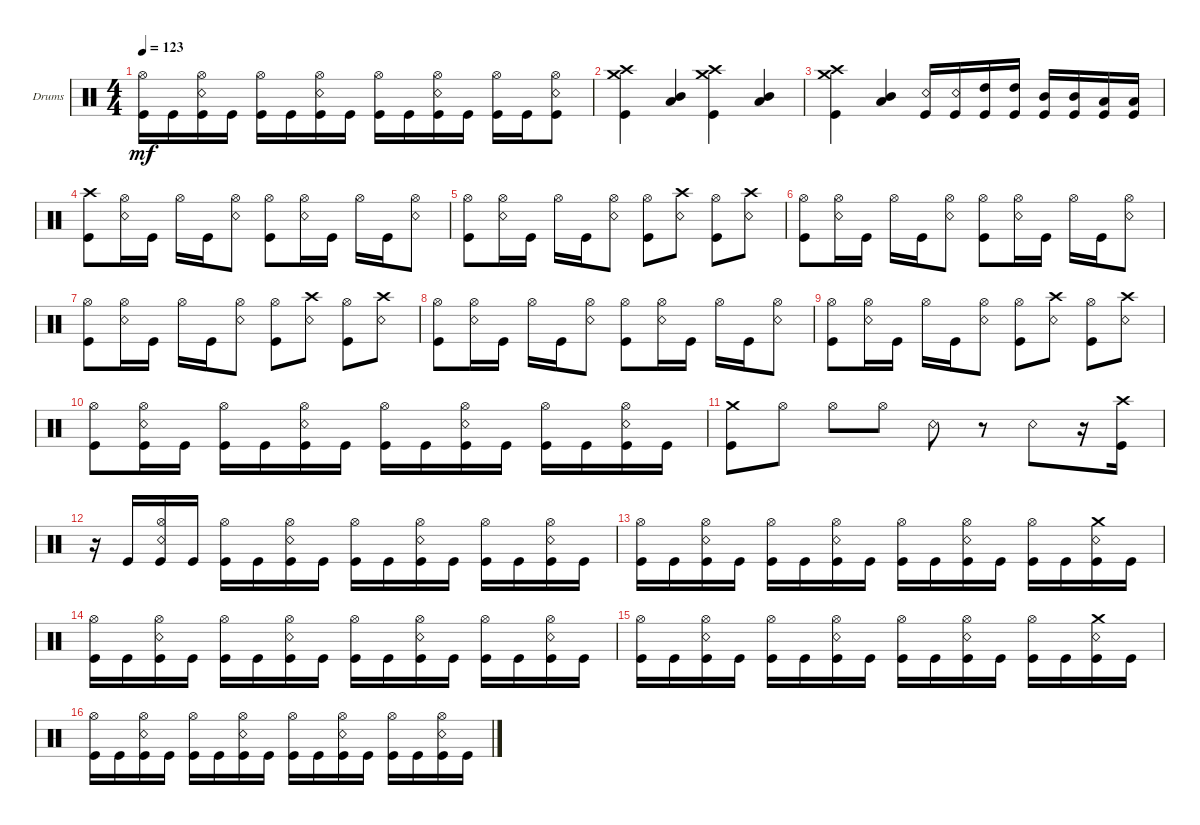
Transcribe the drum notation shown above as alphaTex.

\defaultSystemsLayout 4
\bracketExtendMode groupsimilarinstruments
\firstSystemTrackNameOrientation horizontal
\otherSystemsTrackNameOrientation horizontal
\track ("Drums" "Drums") {instrument percussion}
\staff {score}
\articulation defaults
\ts (4 4)
\tempo 123
\clef neutral
\scale
0.333333
\ks c
("Kick (hit)" "Hi-Hat (open)").16{dy mf} "Kick (hit)".16 ("Kick (hit)" "Hi-Hat (open)" "Snare (rim shot)").16 "Kick (hit)".16 ("Kick (hit)" "Hi-Hat (open)").16 "Kick (hit)".16 ("Kick (hit)" "Hi-Hat (open)" "Snare (rim shot)").16 "Kick (hit)".16 ("Kick (hit)" "Hi-Hat (open)").16 "Kick (hit)".16 ("Kick (hit)" "Hi-Hat (open)" "Snare (rim shot)").16 "Kick (hit)".16 ("Kick (hit)" "Hi-Hat (open)").16 "Kick (hit)".16 ("Kick (hit)" "Hi-Hat (open)" "Snare (rim shot)").8 |
\scale
0.333333 ("Kick (hit)" "Crash medium (hit)" "Crash high (hit)").4 ("Low Tom (hit)" "Mid Tom (hit)").4 ("Kick (hit)" "Crash high (hit)" "Crash medium (hit)").4 ("Mid Tom (hit)" "Low Tom (hit)").4 |
\scale
0.333333 ("Kick (hit)" "Crash medium (hit)" "Crash high (hit)").4 ("Low Tom (hit)" "Mid Tom (hit)").4 ("Kick (hit)" "Snare (rim shot)").16 ("Kick (hit)" "Snare (rim shot)").16 ("Kick (hit)" "High Tom (hit)").16 ("Kick (hit)" "High Tom (hit)").16 ("Kick (hit)" "Mid Tom (hit)").16 ("Kick (hit)" "Mid Tom (hit)").16 ("Kick (hit)" "Low Tom (hit)").16 ("Kick (hit)" "Low Tom (hit)").16 |
\scale
0.333333 ("Kick (hit)" "Crash high (hit)").8 ("Snare (rim shot)" "Hi-Hat (open)").16 "Kick (hit)".16 "Hi-Hat (open)".16 "Kick (hit)".16 ("Snare (rim shot)" "Hi-Hat (open)").8 ("Kick (hit)" "Hi-Hat (open)").8 ("Snare (rim shot)" "Hi-Hat (open)").16 "Kick (hit)".16 "Hi-Hat (open)".16 "Kick (hit)".16 ("Snare (rim shot)" "Hi-Hat (open)").8 |
\scale
0.333333 ("Kick (hit)" "Hi-Hat (open)").8 ("Snare (rim shot)" "Hi-Hat (open)").16 "Kick (hit)".16 "Hi-Hat (open)".16 "Kick (hit)".16 ("Snare (rim shot)" "Hi-Hat (open)").8 ("Kick (hit)" "Hi-Hat (open)").8 ("Snare (rim shot)" "Crash high (hit)").8 ("Kick (hit)" "Hi-Hat (open)").8 ("Snare (rim shot)" "Crash high (hit)").8 |
\scale
0.333333 ("Kick (hit)" "Hi-Hat (open)").8 ("Snare (rim shot)" "Hi-Hat (open)").16 "Kick (hit)".16 "Hi-Hat (open)".16 "Kick (hit)".16 ("Snare (rim shot)" "Hi-Hat (open)").8 ("Kick (hit)" "Hi-Hat (open)").8 ("Snare (rim shot)" "Hi-Hat (open)").16 "Kick (hit)".16 "Hi-Hat (open)".16 "Kick (hit)".16 ("Snare (rim shot)" "Hi-Hat (open)").8 |
\scale
0.333333 ("Kick (hit)" "Hi-Hat (open)").8 ("Snare (rim shot)" "Hi-Hat (open)").16 "Kick (hit)".16 "Hi-Hat (open)".16 "Kick (hit)".16 ("Snare (rim shot)" "Hi-Hat (open)").8 ("Kick (hit)" "Hi-Hat (open)").8 ("Snare (rim shot)" "Crash high (hit)").8 ("Kick (hit)" "Hi-Hat (open)").8 ("Snare (rim shot)" "Crash high (hit)").8 |
\scale
0.333333 ("Kick (hit)" "Hi-Hat (open)").8 ("Snare (rim shot)" "Hi-Hat (open)").16 "Kick (hit)".16 "Hi-Hat (open)".16 "Kick (hit)".16 ("Snare (rim shot)" "Hi-Hat (open)").8 ("Kick (hit)" "Hi-Hat (open)").8 ("Snare (rim shot)" "Hi-Hat (open)").16 "Kick (hit)".16 "Hi-Hat (open)".16 "Kick (hit)".16 ("Snare (rim shot)" "Hi-Hat (open)").8 |
\scale
0.333333 ("Kick (hit)" "Hi-Hat (open)").8 ("Snare (rim shot)" "Hi-Hat (open)").16 "Kick (hit)".16 "Hi-Hat (open)".16 "Kick (hit)".16 ("Snare (rim shot)" "Hi-Hat (open)").8 ("Kick (hit)" "Hi-Hat (open)").8 ("Snare (rim shot)" "Crash high (hit)").8 ("Kick (hit)" "Hi-Hat (open)").8 ("Snare (rim shot)" "Crash high (hit)").8 |
\scale
0.333333 ("Kick (hit)" "Hi-Hat (open)").8 ("Kick (hit)" "Hi-Hat (open)" "Snare (rim shot)").16 "Kick (hit)".16 ("Kick (hit)" "Hi-Hat (open)").16 "Kick (hit)".16 ("Kick (hit)" "Hi-Hat (open)" "Snare (rim shot)").16 "Kick (hit)".16 ("Kick (hit)" "Hi-Hat (open)").16 "Kick (hit)".16 ("Kick (hit)" "Hi-Hat (open)" "Snare (rim shot)").16 "Kick (hit)".16 ("Kick (hit)" "Hi-Hat (open)").16 "Kick (hit)".16 ("Kick (hit)" "Hi-Hat (open)" "Snare (rim shot)").16 "Kick (hit)".16 |
\scale
0.333333 ("Kick (hit)" "Crash medium (hit)").8 "Hi-Hat (open)".8 "Hi-Hat (open)".8 "Hi-Hat (open)".8 "Snare (rim shot)".8 r.8 "Snare (rim shot)".8 r.16 ("Kick (hit)" "Crash high (hit)").16 |
\scale
0.333333 r.16 "Kick (hit)".16 ("Kick (hit)" "Hi-Hat (open)" "Snare (rim shot)").16 "Kick (hit)".16 ("Kick (hit)" "Hi-Hat (open)").16 "Kick (hit)".16 ("Kick (hit)" "Hi-Hat (open)" "Snare (rim shot)").16 "Kick (hit)".16 ("Kick (hit)" "Hi-Hat (open)").16 "Kick (hit)".16 ("Kick (hit)" "Hi-Hat (open)" "Snare (rim shot)").16 "Kick (hit)".16 ("Kick (hit)" "Hi-Hat (open)").16 "Kick (hit)".16 ("Kick (hit)" "Snare (rim shot)" "Hi-Hat (open)").16 "Kick (hit)".16 |
\scale
0.333333 ("Kick (hit)" "Hi-Hat (open)").16 "Kick (hit)".16 ("Kick (hit)" "Hi-Hat (open)" "Snare (rim shot)").16 "Kick (hit)".16 ("Kick (hit)" "Hi-Hat (open)").16 "Kick (hit)".16 ("Kick (hit)" "Hi-Hat (open)" "Snare (rim shot)").16 "Kick (hit)".16 ("Kick (hit)" "Hi-Hat (open)").16 "Kick (hit)".16 ("Kick (hit)" "Hi-Hat (open)" "Snare (rim shot)").16 "Kick (hit)".16 ("Kick (hit)" "Hi-Hat (open)").16 "Kick (hit)".16 ("Kick (hit)" "Snare (rim shot)" "Crash medium (hit)").16 "Kick (hit)".16 |
\scale
0.333333 ("Kick (hit)" "Hi-Hat (open)").16 "Kick (hit)".16 ("Kick (hit)" "Hi-Hat (open)" "Snare (rim shot)").16 "Kick (hit)".16 ("Kick (hit)" "Hi-Hat (open)").16 "Kick (hit)".16 ("Kick (hit)" "Hi-Hat (open)" "Snare (rim shot)").16 "Kick (hit)".16 ("Kick (hit)" "Hi-Hat (open)").16 "Kick (hit)".16 ("Kick (hit)" "Hi-Hat (open)" "Snare (rim shot)").16 "Kick (hit)".16 ("Kick (hit)" "Hi-Hat (open)").16 "Kick (hit)".16 ("Kick (hit)" "Snare (rim shot)" "Hi-Hat (open)").16 "Kick (hit)".16 |
\scale
0.333333 ("Kick (hit)" "Hi-Hat (open)").16 "Kick (hit)".16 ("Kick (hit)" "Hi-Hat (open)" "Snare (rim shot)").16 "Kick (hit)".16 ("Kick (hit)" "Hi-Hat (open)").16 "Kick (hit)".16 ("Kick (hit)" "Hi-Hat (open)" "Snare (rim shot)").16 "Kick (hit)".16 ("Kick (hit)" "Hi-Hat (open)").16 "Kick (hit)".16 ("Kick (hit)" "Hi-Hat (open)" "Snare (rim shot)").16 "Kick (hit)".16 ("Kick (hit)" "Hi-Hat (open)").16 "Kick (hit)".16 ("Kick (hit)" "Snare (rim shot)" "Crash medium (hit)").16 "Kick (hit)".16 |
\scale
0.333333 ("Kick (hit)" "Hi-Hat (open)").16 "Kick (hit)".16 ("Kick (hit)" "Hi-Hat (open)" "Snare (rim shot)").16 "Kick (hit)".16 ("Kick (hit)" "Hi-Hat (open)").16 "Kick (hit)".16 ("Kick (hit)" "Hi-Hat (open)" "Snare (rim shot)").16 "Kick (hit)".16 ("Kick (hit)" "Hi-Hat (open)").16 "Kick (hit)".16 ("Kick (hit)" "Hi-Hat (open)" "Snare (rim shot)").16 "Kick (hit)".16 ("Kick (hit)" "Hi-Hat (open)").16 "Kick (hit)".16 ("Kick (hit)" "Snare (rim shot)" "Hi-Hat (open)").16 "Kick (hit)".16
